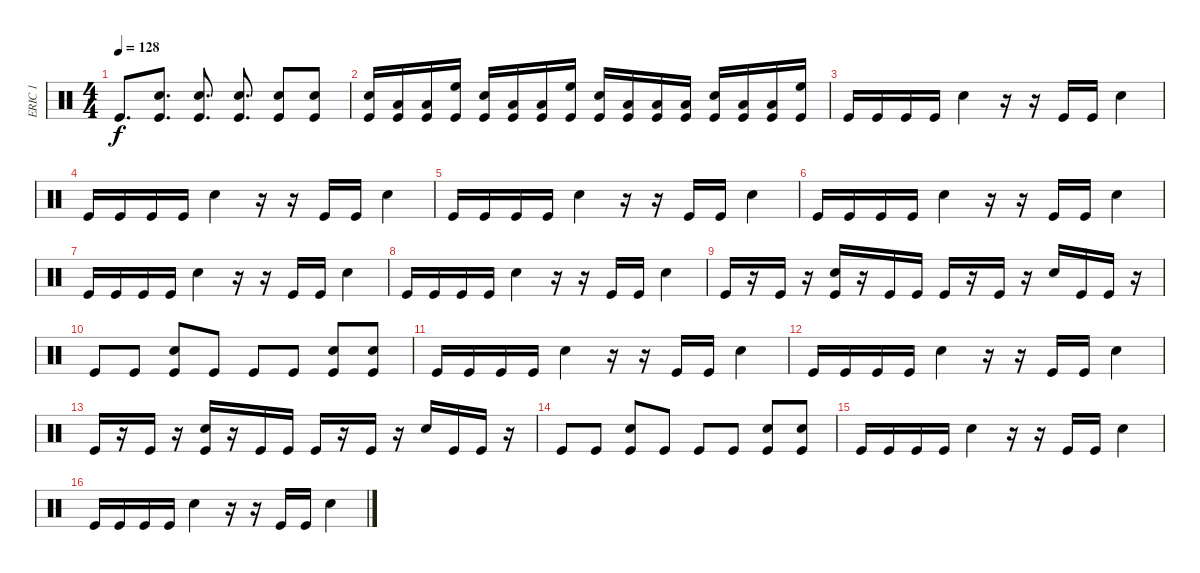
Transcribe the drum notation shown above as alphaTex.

\track ("ERIC 1" "ERIC 1") {instrument percussion}
\staff {score}
\articulation defaults
\ts (4 4)
\tempo 128
\clef neutral
\ks c "Kick (hit)".8{d dy f}
("Electric Snare (hit)" "Kick (hit)").8{d} ("Electric Snare (hit)" "Kick (hit)").8{d} ("Electric Snare (hit)" "Kick (hit)").8{d} ("Electric Snare (hit)" "Kick (hit)").8 ("Electric Snare (hit)" "Kick (hit)").8 |
("Electric Snare (hit)" "Kick (hit)").16 ("Low Floor Tom (hit)" "Kick (hit)").16 ("Low Tom (hit)" "Kick (hit)").16 ("High Floor Tom (hit)" "Kick (hit)").16 ("Electric Snare (hit)" "Kick (hit)").16 ("Low Floor Tom (hit)" "Kick (hit)").16 ("Low Tom (hit)" "Kick (hit)").16 ("High Floor Tom (hit)" "Kick (hit)").16 ("Electric Snare (hit)" "Kick (hit)").16 ("Low Floor Tom (hit)" "Kick (hit)").16 ("Low Tom (hit)" "Kick (hit)").16 ("Low Floor Tom (hit)" "Kick (hit)").16 ("Electric Snare (hit)" "Kick (hit)").16 ("Low Floor Tom (hit)" "Kick (hit)").16 ("Low Tom (hit)" "Kick (hit)").16 ("High Floor Tom (hit)" "Kick (hit)").16 |
"Kick (hit)".16 "Kick (hit)".16 "Kick (hit)".16 "Kick (hit)".16 "Electric Snare (hit)".4 r.16 r.16 "Kick (hit)".16 "Kick (hit)".16 "Electric Snare (hit)".4 |
"Kick (hit)".16 "Kick (hit)".16 "Kick (hit)".16 "Kick (hit)".16 "Electric Snare (hit)".4 r.16 r.16 "Kick (hit)".16 "Kick (hit)".16 "Electric Snare (hit)".4 |
"Kick (hit)".16 "Kick (hit)".16 "Kick (hit)".16 "Kick (hit)".16 "Electric Snare (hit)".4 r.16 r.16 "Kick (hit)".16 "Kick (hit)".16 "Electric Snare (hit)".4 |
"Kick (hit)".16 "Kick (hit)".16 "Kick (hit)".16 "Kick (hit)".16 "Electric Snare (hit)".4 r.16 r.16 "Kick (hit)".16 "Kick (hit)".16 "Electric Snare (hit)".4 |
"Kick (hit)".16 "Kick (hit)".16 "Kick (hit)".16 "Kick (hit)".16 "Electric Snare (hit)".4 r.16 r.16 "Kick (hit)".16 "Kick (hit)".16 "Electric Snare (hit)".4 |
"Kick (hit)".16 "Kick (hit)".16 "Kick (hit)".16 "Kick (hit)".16 "Electric Snare (hit)".4 r.16 r.16 "Kick (hit)".16 "Kick (hit)".16 "Electric Snare (hit)".4 |
"Kick (hit)".16 r.16 "Kick (hit)".16 r.16 ("Electric Snare (hit)" "Kick (hit)").16 r.16 "Kick (hit)".16 "Kick (hit)".16 "Kick (hit)".16 r.16 "Kick (hit)".16 r.16 "Electric Snare (hit)".16 "Kick (hit)".16 "Kick (hit)".16 r.16 |
"Kick (hit)".8 "Kick (hit)".8 ("Electric Snare (hit)" "Kick (hit)").8 "Kick (hit)".8 "Kick (hit)".8 "Kick (hit)".8 ("Electric Snare (hit)" "Kick (hit)").8 ("Electric Snare (hit)" "Kick (hit)").8 |
"Kick (hit)".16 "Kick (hit)".16 "Kick (hit)".16 "Kick (hit)".16 "Electric Snare (hit)".4 r.16 r.16 "Kick (hit)".16 "Kick (hit)".16 "Electric Snare (hit)".4 |
"Kick (hit)".16 "Kick (hit)".16 "Kick (hit)".16 "Kick (hit)".16 "Electric Snare (hit)".4 r.16 r.16 "Kick (hit)".16 "Kick (hit)".16 "Electric Snare (hit)".4 |
"Kick (hit)".16 r.16 "Kick (hit)".16 r.16 ("Electric Snare (hit)" "Kick (hit)").16 r.16 "Kick (hit)".16 "Kick (hit)".16 "Kick (hit)".16 r.16 "Kick (hit)".16 r.16 "Electric Snare (hit)".16 "Kick (hit)".16 "Kick (hit)".16 r.16 |
"Kick (hit)".8 "Kick (hit)".8 ("Electric Snare (hit)" "Kick (hit)").8 "Kick (hit)".8 "Kick (hit)".8 "Kick (hit)".8 ("Electric Snare (hit)" "Kick (hit)").8 ("Electric Snare (hit)" "Kick (hit)").8 |
"Kick (hit)".16 "Kick (hit)".16 "Kick (hit)".16 "Kick (hit)".16 "Electric Snare (hit)".4 r.16 r.16 "Kick (hit)".16 "Kick (hit)".16 "Electric Snare (hit)".4 |
"Kick (hit)".16 "Kick (hit)".16 "Kick (hit)".16 "Kick (hit)".16 "Electric Snare (hit)".4 r.16 r.16 "Kick (hit)".16 "Kick (hit)".16 "Electric Snare (hit)".4
